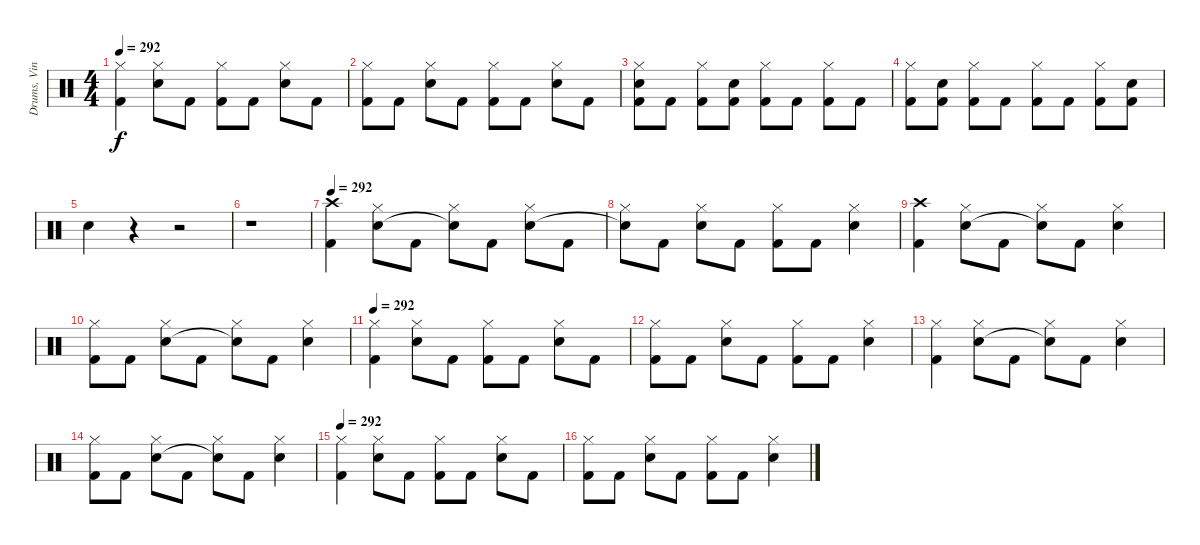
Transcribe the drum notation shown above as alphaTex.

\track ("Drums, Vinnie" "Drums, Vin") {instrument percussion}
\staff {score}
\articulation defaults
\ts (4 4)
\tempo 292
\clef neutral
\ks c
("Hi-Hat (closed)" "Kick (hit) 2").4{dy f} ("Hi-Hat (closed)" "Electric Snare (hit)").8 "Kick (hit) 2".8 ("Hi-Hat (closed)" "Kick (hit) 2").8 "Kick (hit) 2".8 ("Hi-Hat (closed)" "Electric Snare (hit)").8 "Kick (hit) 2".8 |
("Hi-Hat (closed)" "Kick (hit) 2").8 "Kick (hit) 2".8 ("Hi-Hat (closed)" "Electric Snare (hit)").8 "Kick (hit) 2".8 ("Hi-Hat (closed)" "Kick (hit) 2").8 "Kick (hit) 2".8 ("Hi-Hat (closed)" "Electric Snare (hit)").8 "Kick (hit) 2".8 |
("Hi-Hat (closed)" "Electric Snare (hit)" "Kick (hit) 2").8 "Kick (hit) 2".8 ("Hi-Hat (closed)" "Kick (hit) 2").8 ("Electric Snare (hit)" "Kick (hit) 2").8 ("Hi-Hat (closed)" "Kick (hit) 2").8 "Kick (hit) 2".8 ("Hi-Hat (closed)" "Kick (hit) 2").8 "Kick (hit) 2".8 |
("Hi-Hat (closed)" "Kick (hit) 2").8 ("Electric Snare (hit)" "Kick (hit) 2").8 ("Hi-Hat (closed)" "Kick (hit) 2").8 "Kick (hit) 2".8 ("Hi-Hat (closed)" "Kick (hit) 2").8 "Kick (hit) 2".8 ("Hi-Hat (closed)" "Kick (hit) 2").8 ("Electric Snare (hit)" "Kick (hit) 2").8 |
"Electric Snare (hit)".4 r.4 r.2 |
r.1 |
\tempo 292
("Crash high (hit)" "Kick (hit) 2").4 ("Hi-Hat (closed)" "Electric Snare (hit)").8 "Kick (hit) 2".8 ("Hi-Hat (closed)" "Snare (hit)"{t}).8 "Kick (hit) 2".8 ("Hi-Hat (closed)" "Electric Snare (hit)").8 "Kick (hit) 2".8 |
("Hi-Hat (closed)" "Snare (hit)"{t}).8 "Kick (hit) 2".8 ("Hi-Hat (closed)" "Electric Snare (hit)").8 "Kick (hit) 2".8 ("Hi-Hat (closed)" "Kick (hit) 2").8 "Kick (hit) 2".8 ("Hi-Hat (closed)" "Electric Snare (hit)").4 |
("Crash high (hit)" "Kick (hit) 2").4 ("Hi-Hat (closed)" "Electric Snare (hit)").8 "Kick (hit) 2".8 ("Hi-Hat (closed)" "Snare (hit)"{t}).8 "Kick (hit) 2".8 ("Hi-Hat (closed)" "Electric Snare (hit)").4 |
("Hi-Hat (closed)" "Kick (hit) 2").8 "Kick (hit) 2".8 ("Hi-Hat (closed)" "Electric Snare (hit)").8 "Kick (hit) 2".8 ("Hi-Hat (closed)" "Snare (hit)"{t}).8 "Kick (hit) 2".8 ("Hi-Hat (closed)" "Electric Snare (hit)").4 |
\tempo 292
("Hi-Hat (closed)" "Kick (hit) 2").4 ("Hi-Hat (closed)" "Electric Snare (hit)").8 "Kick (hit) 2".8 ("Hi-Hat (closed)" "Kick (hit) 2").8 "Kick (hit) 2".8 ("Hi-Hat (closed)" "Electric Snare (hit)").8 "Kick (hit) 2".8 |
("Hi-Hat (closed)" "Kick (hit) 2").8 "Kick (hit) 2".8 ("Hi-Hat (closed)" "Electric Snare (hit)").8 "Kick (hit) 2".8 ("Hi-Hat (closed)" "Kick (hit) 2").8 "Kick (hit) 2".8 ("Hi-Hat (closed)" "Electric Snare (hit)").4 |
("Hi-Hat (closed)" "Kick (hit) 2").4 ("Hi-Hat (closed)" "Electric Snare (hit)").8 "Kick (hit) 2".8 ("Hi-Hat (closed)" "Snare (hit)"{t}).8 "Kick (hit) 2".8 ("Hi-Hat (closed)" "Electric Snare (hit)").4 |
("Hi-Hat (closed)" "Kick (hit) 2").8 "Kick (hit) 2".8 ("Hi-Hat (closed)" "Electric Snare (hit)").8 "Kick (hit) 2".8 ("Hi-Hat (closed)" "Snare (hit)"{t}).8 "Kick (hit) 2".8 ("Hi-Hat (closed)" "Electric Snare (hit)").4 |
\tempo 292
("Hi-Hat (closed)" "Kick (hit) 2").4 ("Hi-Hat (closed)" "Electric Snare (hit)").8 "Kick (hit) 2".8 ("Hi-Hat (closed)" "Kick (hit) 2").8 "Kick (hit) 2".8 ("Hi-Hat (closed)" "Electric Snare (hit)").8 "Kick (hit) 2".8 |
("Hi-Hat (closed)" "Kick (hit) 2").8 "Kick (hit) 2".8 ("Hi-Hat (closed)" "Electric Snare (hit)").8 "Kick (hit) 2".8 ("Hi-Hat (closed)" "Kick (hit) 2").8 "Kick (hit) 2".8 ("Hi-Hat (closed)" "Electric Snare (hit)").4
